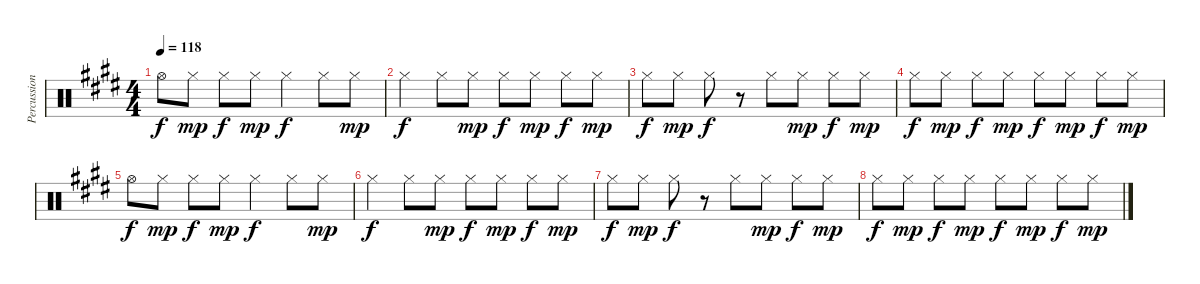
\track ("Percussion" "Percussion") {instrument percussion}
\staff {score}
\articulation defaults
\ts (4 4)
\tempo 118
\clef neutral
\ks e "Hi-Hat (open)".8{dy f} "Hi-Hat (closed)".8{dy mp} "Hi-Hat (closed)".8{dy f} "Hi-Hat (closed)".8{dy mp} "Hi-Hat (closed)".4{dy f} "Hi-Hat (closed)".8 "Hi-Hat (closed)".8{dy mp}
|
"Hi-Hat (closed)".4{dy f} "Hi-Hat (closed)".8 "Hi-Hat (closed)".8{dy mp} "Hi-Hat (closed)".8{dy f} "Hi-Hat (closed)".8{dy mp} "Hi-Hat (closed)".8{dy f} "Hi-Hat (closed)".8{dy mp} |
"Hi-Hat (closed)".8{dy f} "Hi-Hat (closed)".8{dy mp} "Hi-Hat (closed)".8{dy f} r.8 "Hi-Hat (closed)".8 "Hi-Hat (closed)".8{dy mp} "Hi-Hat (closed)".8{dy f} "Hi-Hat (closed)".8{dy mp} |
"Hi-Hat (closed)".8{dy f} "Hi-Hat (closed)".8{dy mp} "Hi-Hat (closed)".8{dy f} "Hi-Hat (closed)".8{dy mp} "Hi-Hat (closed)".8{dy f} "Hi-Hat (closed)".8{dy mp} "Hi-Hat (closed)".8{dy f} "Hi-Hat (closed)".8{dy mp} |
"Hi-Hat (open)".8{dy f} "Hi-Hat (closed)".8{dy mp} "Hi-Hat (closed)".8{dy f} "Hi-Hat (closed)".8{dy mp} "Hi-Hat (closed)".4{dy f} "Hi-Hat (closed)".8 "Hi-Hat (closed)".8{dy mp} |
"Hi-Hat (closed)".4{dy f} "Hi-Hat (closed)".8 "Hi-Hat (closed)".8{dy mp} "Hi-Hat (closed)".8{dy f} "Hi-Hat (closed)".8{dy mp} "Hi-Hat (closed)".8{dy f} "Hi-Hat (closed)".8{dy mp} |
"Hi-Hat (closed)".8{dy f} "Hi-Hat (closed)".8{dy mp} "Hi-Hat (closed)".8{dy f} r.8 "Hi-Hat (closed)".8 "Hi-Hat (closed)".8{dy mp} "Hi-Hat (closed)".8{dy f} "Hi-Hat (closed)".8{dy mp} |
"Hi-Hat (closed)".8{dy f} "Hi-Hat (closed)".8{dy mp} "Hi-Hat (closed)".8{dy f} "Hi-Hat (closed)".8{dy mp} "Hi-Hat (closed)".8{dy f} "Hi-Hat (closed)".8{dy mp} "Hi-Hat (closed)".8{dy f} "Hi-Hat (closed)".8{dy mp}
